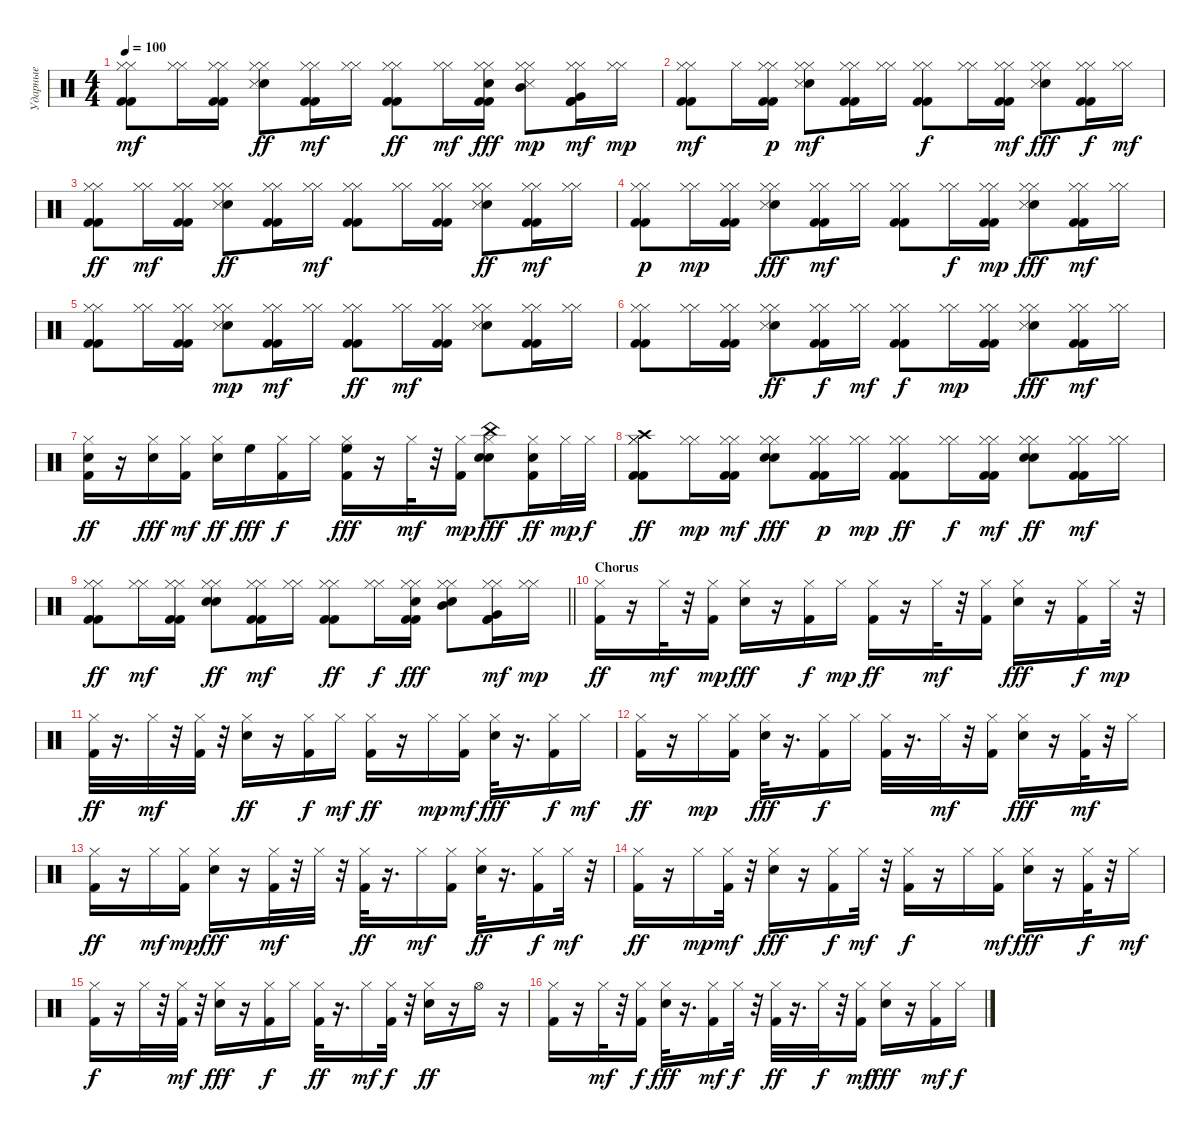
\track ("Ударные" "Ударные") {instrument percussion}
\staff {score}
\articulation defaults
\ts (4 4)
\tempo 100
\clef neutral
\ks c
("Hi-Hat (closed)" "Kick (hit) 2" "Kick (hit) 2" "Hi-Hat (closed)").8{dy mf} ("Hi-Hat (closed)" "Hi-Hat (closed)").16 ("Kick (hit) 2" "Hi-Hat (closed)" "Kick (hit) 2" "Hi-Hat (closed)").16 ("Hi-Hat (closed)" "Snare (hit) 2" "Hi-Hat (closed)" "Snare (side stick) 3").8{dy ff} ("Hi-Hat (closed)" "Kick (hit) 2" "Kick (hit) 2" "Hi-Hat (closed)").16{dy mf} ("Hi-Hat (closed)" "Hi-Hat (closed)").16 ("Hi-Hat (closed)" "Kick (hit) 2" "Hi-Hat (closed)" "Kick (hit) 2").8{dy ff} ("Hi-Hat (closed)" "Hi-Hat (closed)").16{dy mf} ("Hi-Hat (closed)" "Kick (hit) 2" "Kick (hit) 2" "Hi-Hat (closed)" "Snare (hit) 2").16{dy fff} ("Hi-Hat (closed)" "Hi-Hat (closed)" "Mid Tom (hit)" "Snare (side stick) 3").8{dy mp} ("Kick (hit) 2" "Hi-Hat (closed)" "Kick (hit) 2" "Hi-Hat (closed)" "Very Low Tom (hit)").16{dy mf} ("Hi-Hat (closed)" "Hi-Hat (closed)").16{dy mp} |
("Kick (hit) 2" "Hi-Hat (closed)" "Hi-Hat (closed)" "Kick (hit) 2").8{dy mf} "Hi-Hat (closed)".16 ("Hi-Hat (closed)" "Kick (hit) 2" "Kick (hit) 2" "Hi-Hat (closed)").16{dy p} ("Snare (hit) 2" "Hi-Hat (closed)" "Hi-Hat (closed)" "Snare (side stick) 3").8{dy mf} ("Kick (hit) 2" "Hi-Hat (closed)" "Hi-Hat (closed)" "Kick (hit) 2").16 ("Hi-Hat (closed)" "Hi-Hat (closed)").16 ("Kick (hit) 2" "Hi-Hat (closed)" "Kick (hit) 2" "Hi-Hat (closed)").8{dy f} ("Hi-Hat (closed)" "Hi-Hat (closed)").16 ("Kick (hit) 2" "Hi-Hat (closed)" "Kick (hit) 2" "Hi-Hat (closed)").16{dy mf} ("Hi-Hat (closed)" "Hi-Hat (closed)" "Snare (hit) 2" "Snare (side stick) 3").8{dy fff} ("Kick (hit) 2" "Hi-Hat (closed)" "Hi-Hat (closed)" "Kick (hit) 2").16{dy f} ("Hi-Hat (closed)" "Hi-Hat (closed)").16{dy mf} |
("Kick (hit) 2" "Hi-Hat (closed)" "Kick (hit) 2" "Hi-Hat (closed)").8{dy ff} ("Hi-Hat (closed)" "Hi-Hat (closed)").16{dy mf} ("Kick (hit) 2" "Hi-Hat (closed)" "Kick (hit) 2" "Hi-Hat (closed)").16 ("Hi-Hat (closed)" "Snare (hit) 2" "Hi-Hat (closed)" "Snare (side stick) 3").8{dy ff} ("Kick (hit) 2" "Hi-Hat (closed)" "Hi-Hat (closed)" "Kick (hit) 2").16 ("Hi-Hat (closed)" "Hi-Hat (closed)").16{dy mf} ("Kick (hit) 2" "Hi-Hat (closed)" "Hi-Hat (closed)" "Kick (hit) 2").8 ("Hi-Hat (closed)" "Hi-Hat (closed)").16 ("Kick (hit) 2" "Hi-Hat (closed)" "Kick (hit) 2" "Hi-Hat (closed)").16 ("Hi-Hat (closed)" "Hi-Hat (closed)" "Snare (hit) 2" "Snare (side stick) 3").8{dy ff} ("Hi-Hat (closed)" "Kick (hit) 2" "Hi-Hat (closed)" "Kick (hit) 2").16{dy mf} ("Hi-Hat (closed)" "Hi-Hat (closed)").16 |
("Hi-Hat (closed)" "Kick (hit) 2" "Kick (hit) 2" "Hi-Hat (closed)").8{dy p} ("Hi-Hat (closed)" "Hi-Hat (closed)").16{dy mp} ("Kick (hit) 2" "Hi-Hat (closed)" "Kick (hit) 2" "Hi-Hat (closed)").16 ("Hi-Hat (closed)" "Hi-Hat (closed)" "Snare (hit) 2" "Snare (side stick) 3").8{dy fff} ("Kick (hit) 2" "Hi-Hat (closed)" "Kick (hit) 2" "Hi-Hat (closed)").16{dy mf} ("Hi-Hat (closed)" "Hi-Hat (closed)").16 ("Hi-Hat (closed)" "Kick (hit) 2" "Kick (hit) 2" "Hi-Hat (closed)").8 ("Hi-Hat (closed)" "Hi-Hat (closed)").16{dy f} ("Kick (hit) 2" "Hi-Hat (closed)" "Hi-Hat (closed)" "Kick (hit) 2").16{dy mp} ("Hi-Hat (closed)" "Hi-Hat (closed)" "Snare (hit) 2" "Snare (side stick) 3").8{dy fff} ("Kick (hit) 2" "Hi-Hat (closed)" "Kick (hit) 2" "Hi-Hat (closed)").16{dy mf} ("Hi-Hat (closed)" "Hi-Hat (closed)").16 |
("Hi-Hat (closed)" "Kick (hit) 2" "Hi-Hat (closed)" "Kick (hit) 2").8 ("Hi-Hat (closed)" "Hi-Hat (closed)").16 ("Kick (hit) 2" "Hi-Hat (closed)" "Kick (hit) 2" "Hi-Hat (closed)").16 ("Hi-Hat (closed)" "Snare (hit) 2" "Hi-Hat (closed)" "Snare (side stick) 3").8{dy mp} ("Kick (hit) 2" "Hi-Hat (closed)" "Kick (hit) 2" "Hi-Hat (closed)").16{dy mf} ("Hi-Hat (closed)" "Hi-Hat (closed)").16 ("Kick (hit) 2" "Hi-Hat (closed)" "Hi-Hat (closed)" "Kick (hit) 2").8{dy ff} ("Hi-Hat (closed)" "Hi-Hat (closed)").16{dy mf} ("Kick (hit) 2" "Hi-Hat (closed)" "Kick (hit) 2" "Hi-Hat (closed)").16 ("Hi-Hat (closed)" "Snare (hit) 2" "Hi-Hat (closed)" "Snare (side stick) 3").8 ("Kick (hit) 2" "Hi-Hat (closed)" "Hi-Hat (closed)" "Kick (hit) 2").16 ("Hi-Hat (closed)" "Hi-Hat (closed)").16 |
("Kick (hit) 2" "Hi-Hat (closed)" "Kick (hit) 2" "Hi-Hat (closed)").8 ("Hi-Hat (closed)" "Hi-Hat (closed)").16 ("Kick (hit) 2" "Hi-Hat (closed)" "Kick (hit) 2" "Hi-Hat (closed)").16 ("Hi-Hat (closed)" "Hi-Hat (closed)" "Snare (hit) 2" "Snare (side stick) 3").8{dy ff} ("Kick (hit) 2" "Hi-Hat (closed)" "Kick (hit) 2" "Hi-Hat (closed)").16{dy f} ("Hi-Hat (closed)" "Hi-Hat (closed)").16{dy mf} ("Kick (hit) 2" "Hi-Hat (closed)" "Kick (hit) 2" "Hi-Hat (closed)").8{dy f} ("Hi-Hat (closed)" "Hi-Hat (closed)").16{dy mp} ("Kick (hit) 2" "Kick (hit) 2" "Hi-Hat (closed)" "Hi-Hat (closed)").16 ("Hi-Hat (closed)" "Hi-Hat (closed)" "Snare (hit) 2" "Snare (side stick) 3").8{dy fff} ("Kick (hit) 2" "Hi-Hat (closed)" "Hi-Hat (closed)" "Kick (hit) 2").16{dy mf} ("Hi-Hat (closed)" "Hi-Hat (closed)").16 |
("Kick (hit) 2" "Hi-Hat (closed)" "Snare (hit) 2").16{dy ff} r.16 ("Hi-Hat (closed)" "Snare (hit) 2").16{dy fff} ("Kick (hit) 2" "Hi-Hat (closed)").16{dy mf} ("Hi-Hat (closed)" "Snare (hit) 2").16{dy ff} "High Floor Tom (hit)".16{dy fff} ("Kick (hit) 2" "Hi-Hat (closed)").16{dy f} "Hi-Hat (closed)".16 ("Hi-Hat (closed)" "Kick (hit) 2" "High Floor Tom (hit)").16{dy fff} r.16 "Hi-Hat (closed)".32{dy mf} r.32 ("Kick (hit) 2" "Hi-Hat (closed)").16{dy mp} ("China (hit)" "Hi-Hat (closed)" "Snare (hit) 2" "Snare (hit) 2").8{dy fff} ("Kick (hit) 2" "Hi-Hat (closed)" "Snare (hit) 2").16{dy ff} "Hi-Hat (closed)".32{dy mp} "Hi-Hat (closed)".32{dy f} |
("Kick (hit) 2" "Crash high (hit)" "Hi-Hat (closed)" "Hi-Hat (closed)" "Kick (hit) 2").8{dy ff} ("Hi-Hat (closed)" "Hi-Hat (closed)").16{dy mp} ("Hi-Hat (closed)" "Kick (hit) 2" "Hi-Hat (closed)" "Kick (hit) 2").16{dy mf} ("Hi-Hat (closed)" "Hi-Hat (closed)" "Snare (hit) 2" "Snare (hit) 2").8{dy fff} ("Kick (hit) 2" "Hi-Hat (closed)" "Kick (hit) 2" "Hi-Hat (closed)").16{dy p} ("Hi-Hat (closed)" "Hi-Hat (closed)").16{dy mp} ("Kick (hit) 2" "Hi-Hat (closed)" "Kick (hit) 2" "Hi-Hat (closed)").8{dy ff} ("Hi-Hat (closed)" "Hi-Hat (closed)").16{dy f} ("Kick (hit) 2" "Hi-Hat (closed)" "Kick (hit) 2" "Hi-Hat (closed)").16{dy mf} ("Hi-Hat (closed)" "Hi-Hat (closed)" "Snare (hit) 2" "Snare (hit) 2").8{dy ff} ("Kick (hit) 2" "Hi-Hat (closed)" "Kick (hit) 2" "Hi-Hat (closed)").16{dy mf} ("Hi-Hat (closed)" "Hi-Hat (closed)").16 |
\barLineRight lightlight
("Hi-Hat (closed)" "Kick (hit) 2" "Kick (hit) 2" "Hi-Hat (closed)").8{dy ff} ("Hi-Hat (closed)" "Hi-Hat (closed)").16{dy mf} ("Kick (hit) 2" "Hi-Hat (closed)" "Kick (hit) 2" "Hi-Hat (closed)").16 ("Hi-Hat (closed)" "Snare (hit) 2" "Hi-Hat (closed)" "Snare (hit) 2").8{dy ff} ("Hi-Hat (closed)" "Kick (hit) 2" "Kick (hit) 2" "Hi-Hat (closed)").16{dy mf} ("Hi-Hat (closed)" "Hi-Hat (closed)").16 ("Hi-Hat (closed)" "Kick (hit) 2" "Kick (hit) 2" "Hi-Hat (closed)").8{dy ff} ("Hi-Hat (closed)" "Hi-Hat (closed)").16{dy f} ("Hi-Hat (closed)" "Kick (hit) 2" "Kick (hit) 2" "Hi-Hat (closed)" "Snare (hit) 2").16{dy fff} ("Hi-Hat (closed)" "Hi-Hat (closed)" "Mid Tom (hit)" "Snare (hit) 2").8 ("Kick (hit) 2" "Hi-Hat (closed)" "Kick (hit) 2" "Hi-Hat (closed)" "Very Low Tom (hit)").16{dy mf} ("Hi-Hat (closed)" "Hi-Hat (closed)").16{dy mp} |
\section ("" "Chorus")
("Hi-Hat (closed)" "Kick (hit) 2").16{dy ff} r.16 "Hi-Hat (closed)".32{dy mf} r.32 ("Hi-Hat (closed)" "Kick (hit) 2").16{dy mp} ("Hi-Hat (closed)" "Snare (hit) 2").16{dy fff} r.16 ("Kick (hit) 2" "Hi-Hat (closed)").16{dy f} "Hi-Hat (closed)".16{dy mp} ("Kick (hit) 2" "Hi-Hat (closed)").16{dy ff} r.16 "Hi-Hat (closed)".32{dy mf} r.32 ("Kick (hit) 2" "Hi-Hat (closed)").16 ("Hi-Hat (closed)" "Snare (hit) 2").16{dy fff} r.16 ("Kick (hit) 2" "Hi-Hat (closed)").16{dy f} "Hi-Hat (closed)".32{dy mp} r.32 |
("Hi-Hat (closed)" "Kick (hit) 2").32{dy ff} r.16{d} "Hi-Hat (closed)".32{dy mf} r.32 ("Kick (hit) 2" "Hi-Hat (closed)").32 r.32 ("Hi-Hat (closed)" "Snare (hit) 2").16{dy ff} r.16 ("Kick (hit) 2" "Hi-Hat (closed)").16{dy f} "Hi-Hat (closed)".16{dy mf} ("Hi-Hat (closed)" "Kick (hit) 2").16{dy ff} r.16 "Hi-Hat (closed)".16{dy mp} ("Kick (hit) 2" "Hi-Hat (closed)").16{dy mf} ("Hi-Hat (closed)" "Snare (hit) 2").32{dy fff} r.16{d} ("Kick (hit) 2" "Hi-Hat (closed)").16{dy f} "Hi-Hat (closed)".16{dy mf} |
("Hi-Hat (closed)" "Kick (hit) 2").16{dy ff} r.16 "Hi-Hat (closed)".16{dy mp} ("Kick (hit) 2" "Hi-Hat (closed)").16 ("Hi-Hat (closed)" "Snare (hit) 2").32{dy fff} r.16{d} ("Kick (hit) 2" "Hi-Hat (closed)").16{dy f} "Hi-Hat (closed)".16 ("Hi-Hat (closed)" "Kick (hit) 2").32 r.16{d} "Hi-Hat (closed)".32{dy mf} r.32 ("Hi-Hat (closed)" "Kick (hit) 2").16 ("Hi-Hat (closed)" "Snare (hit) 2").16{dy fff} r.16 ("Kick (hit) 2" "Hi-Hat (closed)").32{dy mf} r.32 "Hi-Hat (closed)".16 |
("Kick (hit) 2" "Hi-Hat (closed)").16{dy ff} r.16 "Hi-Hat (closed)".16{dy mf} ("Hi-Hat (closed)" "Kick (hit) 2").16{dy mp} ("Hi-Hat (closed)" "Snare (hit) 2").16{dy fff} r.16 ("Kick (hit) 2" "Hi-Hat (closed)").32{dy mf} r.32 "Hi-Hat (closed)".32 r.32 ("Kick (hit) 2" "Hi-Hat (closed)").32{dy ff} r.16{d} "Hi-Hat (closed)".16{dy mf} ("Kick (hit) 2" "Hi-Hat (closed)").16 ("Snare (hit) 2" "Hi-Hat (closed)").32{dy ff} r.16{d} ("Kick (hit) 2" "Hi-Hat (closed)").16{dy f} "Hi-Hat (closed)".32{dy mf} r.32 |
("Hi-Hat (closed)" "Kick (hit) 2").16{dy ff} r.16 "Hi-Hat (closed)".16{dy mp} ("Kick (hit) 2" "Hi-Hat (closed)").32{dy mf} r.32 ("Hi-Hat (closed)" "Snare (hit) 2").16{dy fff} r.16 ("Kick (hit) 2" "Hi-Hat (closed)").16{dy f} "Hi-Hat (closed)".32{dy mf} r.32 ("Hi-Hat (closed)" "Kick (hit) 2").16{dy f} r.16 "Hi-Hat (closed)".16 ("Kick (hit) 2" "Hi-Hat (closed)").16{dy mf} ("Hi-Hat (closed)" "Snare (hit) 2").16{dy fff} r.16 ("Kick (hit) 2" "Hi-Hat (closed)").32{dy f} r.32 "Hi-Hat (closed)".16{dy mf} |
("Kick (hit) 2" "Hi-Hat (closed)").16{dy f} r.16 "Hi-Hat (closed)".32 r.32 ("Hi-Hat (closed)" "Kick (hit) 2").32{dy mf} r.32 ("Hi-Hat (closed)" "Snare (hit) 2").16{dy fff} r.16 ("Hi-Hat (closed)" "Kick (hit) 2").16{dy f} "Hi-Hat (closed)".16 ("Kick (hit) 2" "Hi-Hat (closed)").32{dy ff} r.16{d} "Hi-Hat (closed)".16{dy mf} ("Hi-Hat (closed)" "Kick (hit) 2").32{dy f} r.32 ("Hi-Hat (closed)" "Snare (hit) 2").16{dy ff} r.16 "Hi-Hat (open)".16 r.16 |
("Hi-Hat (closed)" "Kick (hit) 2").16 r.16 "Hi-Hat (closed)".32{dy mf} r.32 ("Kick (hit) 2" "Hi-Hat (closed)").16{dy f} ("Hi-Hat (closed)" "Snare (hit) 2").32{dy fff} r.16{d} ("Kick (hit) 2" "Hi-Hat (closed)").16{dy mf} "Hi-Hat (closed)".32{dy f} r.32 ("Kick (hit) 2" "Hi-Hat (closed)").32{dy ff} r.16{d} "Hi-Hat (closed)".32{dy f} r.32 ("Kick (hit) 2" "Hi-Hat (closed)").16{dy mf} ("Hi-Hat (closed)" "Snare (hit) 2").16{dy fff} r.16 ("Kick (hit) 2" "Hi-Hat (closed)").16{dy mf} "Hi-Hat (closed)".16{dy f}
